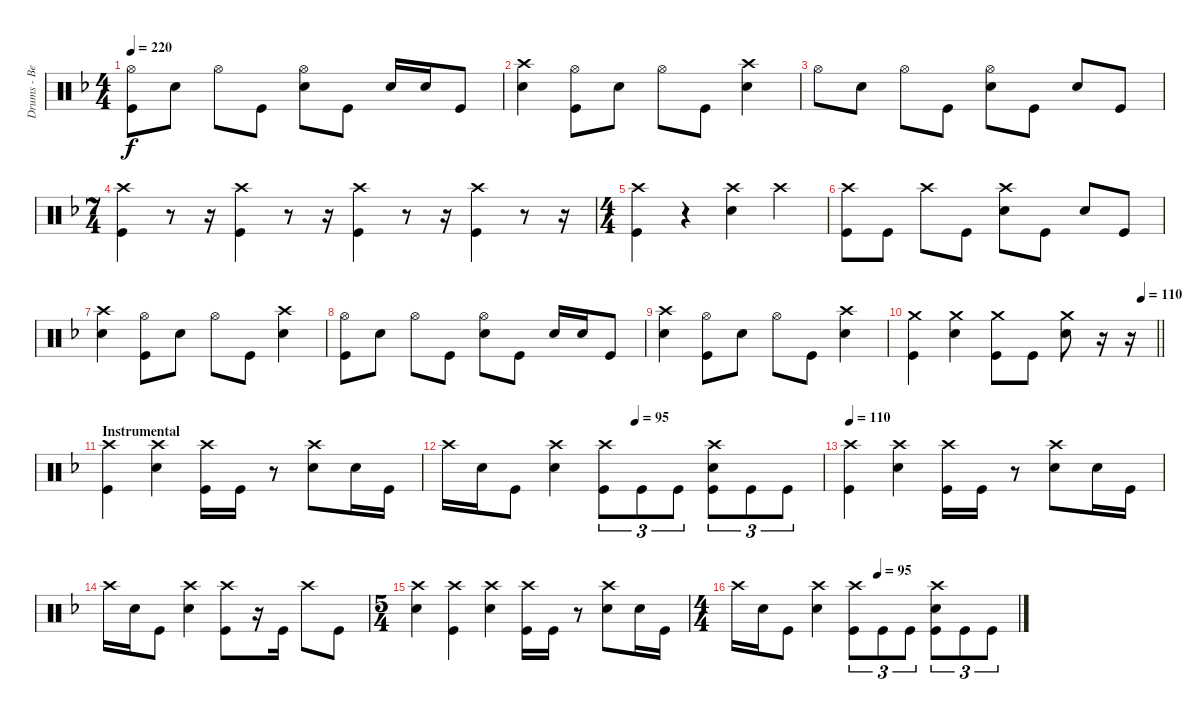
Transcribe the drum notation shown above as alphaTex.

\track ("Drums - Ben Johnston" "Drums - Be") {instrument percussion}
\staff {score}
\articulation defaults
\ts (4 4)
\tempo 220
\clef neutral
\ks dminor
("Hi-Hat (open)" "Kick (hit)").8{dy f} "Snare (hit) 2".8 "Hi-Hat (open)".8 "Kick (hit)".8 ("Hi-Hat (open)" "Snare (hit) 2").8 "Kick (hit)".8 "Snare (hit) 2".16 "Snare (hit) 2".16 "Kick (hit)".8 |
("Crash high (hit)" "Snare (hit) 2").4 ("Hi-Hat (open)" "Kick (hit)").8 "Snare (hit) 2".8 "Hi-Hat (open)".8 "Kick (hit)".8 ("Crash high (hit)" "Snare (hit) 2").4 |
"Hi-Hat (open)".8 "Snare (hit) 2".8 "Hi-Hat (open)".8 "Kick (hit)".8 ("Hi-Hat (open)" "Snare (hit) 2").8 "Kick (hit)".8 "Snare (hit) 2".8 "Kick (hit)".8 |
\ts (7 4)
("Crash high (hit)" "Kick (hit)").4 r.8 r.16 ("Crash high (hit)" "Kick (hit)").4 r.8 r.16 ("Crash high (hit)" "Kick (hit)").4 r.8 r.16 ("Crash high (hit)" "Kick (hit)").4 r.8 r.16 |
\ts (4 4)
("Crash high (hit)" "Kick (hit)").4 r.4 ("Crash high (hit)" "Snare (hit) 2").4 "Crash high (hit)".4 |
("Crash high (hit)" "Kick (hit)").8 "Kick (hit)".8 "Crash high (hit)".8 "Kick (hit)".8 ("Crash high (hit)" "Snare (hit) 2").8 "Kick (hit)".8 "Snare (hit) 2".8 "Kick (hit)".8 |
("Crash high (hit)" "Snare (hit) 2").4 ("Hi-Hat (open)" "Kick (hit)").8 "Snare (hit) 2".8 "Hi-Hat (open)".8 "Kick (hit)".8 ("Crash high (hit)" "Snare (hit) 2").4 |
("Hi-Hat (open)" "Kick (hit)").8 "Snare (hit) 2".8 "Hi-Hat (open)".8 "Kick (hit)".8 ("Hi-Hat (open)" "Snare (hit) 2").8 "Kick (hit)".8 "Snare (hit) 2".16 "Snare (hit) 2".16 "Kick (hit)".8 |
("Crash high (hit)" "Snare (hit) 2").4 ("Hi-Hat (open)" "Kick (hit)").8 "Snare (hit) 2".8 "Hi-Hat (open)".8 "Kick (hit)".8 ("Crash high (hit)" "Snare (hit) 2").4 |
\tempo (110 0.9375)
\barLineRight lightlight
("Crash medium (hit)" "Kick (hit)").4 ("Crash medium (hit)" "Snare (hit) 2").4 ("Crash medium (hit)" "Kick (hit)").8 "Kick (hit)".8 ("Crash medium (hit)" "Snare (hit) 2").8 r.16 r.16 |
\section ("" "Instrumental")
("Crash high (hit)" "Kick (hit)").4 ("Crash high (hit)" "Snare (hit) 2").4 ("Crash high (hit)" "Kick (hit)").16 "Kick (hit)".16 r.8 ("Crash high (hit)" "Snare (hit) 2").8 "Snare (hit) 2".16 "Kick (hit)".16 |
\tempo (95 0.5)
"Crash high (hit)".16 "Snare (hit) 2".16 "Kick (hit)".8 ("Crash high (hit)" "Snare (hit) 2").4 ("Crash high (hit)" "Kick (hit)").8{tu (3 2)} "Kick (hit)".8{tu (3 2)} "Kick (hit)".8{tu (3 2)} ("Crash high (hit)" "Snare (hit) 2" "Kick (hit)").8{tu (3 2)} "Kick (hit)".8{tu (3 2)} "Kick (hit)".8{tu (3 2)} |
\tempo 110
("Crash high (hit)" "Kick (hit)").4 ("Crash high (hit)" "Snare (hit) 2").4 ("Crash high (hit)" "Kick (hit)").16 "Kick (hit)".16 r.8 ("Crash high (hit)" "Snare (hit) 2").8 "Snare (hit) 2".16 "Kick (hit)".16 |
"Crash high (hit)".16 "Snare (hit) 2".16 "Kick (hit)".8 ("Crash high (hit)" "Snare (hit) 2").4 ("Crash high (hit)" "Kick (hit)").8 r.16 "Kick (hit)".16 "Crash high (hit)".8 "Kick (hit)".8 |
\ts (5 4)
("Crash high (hit)" "Snare (hit) 2").4 ("Crash high (hit)" "Kick (hit)").4 ("Crash high (hit)" "Snare (hit) 2").4 ("Crash high (hit)" "Kick (hit)").16 "Kick (hit)".16 r.8 ("Crash high (hit)" "Snare (hit) 2").8 "Snare (hit) 2".16 "Kick (hit)".16 |
\ts (4 4)
\tempo (95 0.5)
"Crash high (hit)".16 "Snare (hit) 2".16 "Kick (hit)".8 ("Crash high (hit)" "Snare (hit) 2").4 ("Crash high (hit)" "Kick (hit)").8{tu (3 2)} "Kick (hit)".8{tu (3 2)} "Kick (hit)".8{tu (3 2)} ("Crash high (hit)" "Snare (hit) 2" "Kick (hit)").8{tu (3 2)} "Kick (hit)".8{tu (3 2)} "Kick (hit)".8{tu (3 2)}
